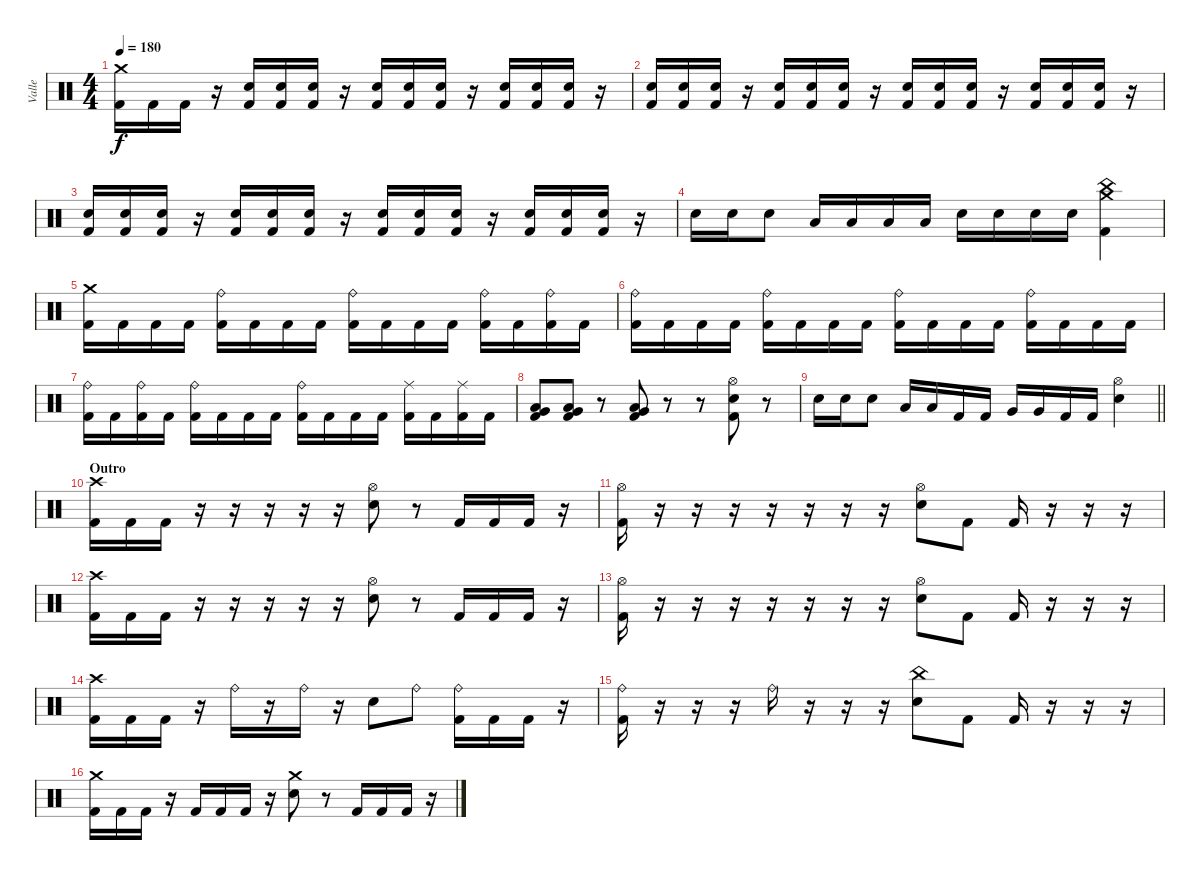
\track ("Valle" "Valle") {instrument percussion}
\staff {score}
\articulation defaults
\ts (4 4)
\tempo 180
\clef neutral
\ks c
("Crash medium (hit)" "Kick (hit) 2").16{dy f} "Kick (hit) 2".16 "Kick (hit) 2".16 r.16 ("Snare (hit) 2" "Kick (hit) 2").16 ("Snare (hit) 2" "Kick (hit) 2").16 ("Snare (hit) 2" "Kick (hit) 2").16 r.16 ("Snare (hit) 2" "Kick (hit) 2").16 ("Snare (hit) 2" "Kick (hit) 2").16 ("Snare (hit) 2" "Kick (hit) 2").16 r.16 ("Snare (hit) 2" "Kick (hit) 2").16 ("Snare (hit) 2" "Kick (hit) 2").16 ("Snare (hit) 2" "Kick (hit) 2").16 r.16 |
("Snare (hit) 2" "Kick (hit) 2").16 ("Snare (hit) 2" "Kick (hit) 2").16 ("Snare (hit) 2" "Kick (hit) 2").16 r.16 ("Snare (hit) 2" "Kick (hit) 2").16 ("Snare (hit) 2" "Kick (hit) 2").16 ("Snare (hit) 2" "Kick (hit) 2").16 r.16 ("Snare (hit) 2" "Kick (hit) 2").16 ("Snare (hit) 2" "Kick (hit) 2").16 ("Snare (hit) 2" "Kick (hit) 2").16 r.16 ("Snare (hit) 2" "Kick (hit) 2").16 ("Snare (hit) 2" "Kick (hit) 2").16 ("Snare (hit) 2" "Kick (hit) 2").16 r.16 |
("Snare (hit) 2" "Kick (hit) 2").16 ("Snare (hit) 2" "Kick (hit) 2").16 ("Snare (hit) 2" "Kick (hit) 2").16 r.16 ("Snare (hit) 2" "Kick (hit) 2").16 ("Snare (hit) 2" "Kick (hit) 2").16 ("Snare (hit) 2" "Kick (hit) 2").16 r.16 ("Snare (hit) 2" "Kick (hit) 2").16 ("Snare (hit) 2" "Kick (hit) 2").16 ("Snare (hit) 2" "Kick (hit) 2").16 r.16 ("Snare (hit) 2" "Kick (hit) 2").16 ("Snare (hit) 2" "Kick (hit) 2").16 ("Snare (hit) 2" "Kick (hit) 2").16 r.16 |
"Snare (hit) 2".16 "Snare (hit) 2".16 "Snare (hit) 2".8 "Low Tom (hit)".16 "Low Tom (hit)".16 "Low Tom (hit)".16 "Low Tom (hit)".16 "Snare (hit) 2".16 "Snare (hit) 2".16 "Snare (hit) 2".16 "Snare (hit) 2".16 ("Crash medium (hit)" "China (hit)" "Kick (hit) 2").4 |
("Crash medium (hit)" "Kick (hit) 2").16 "Kick (hit) 2".16 "Kick (hit) 2".16 "Kick (hit) 2".16 ("Ride (bell)" "Kick (hit) 2").16 "Kick (hit) 2".16 "Kick (hit) 2".16 "Kick (hit) 2".16 ("Ride (bell)" "Kick (hit) 2").16 "Kick (hit) 2".16 "Kick (hit) 2".16 "Kick (hit) 2".16 ("Ride (bell)" "Kick (hit) 2").16 "Kick (hit) 2".16 ("Ride (bell)" "Kick (hit) 2").16 "Kick (hit) 2".16 |
("Ride (bell)" "Kick (hit) 2").16 "Kick (hit) 2".16 "Kick (hit) 2".16 "Kick (hit) 2".16 ("Ride (bell)" "Kick (hit) 2").16 "Kick (hit) 2".16 "Kick (hit) 2".16 "Kick (hit) 2".16 ("Ride (bell)" "Kick (hit) 2").16 "Kick (hit) 2".16 "Kick (hit) 2".16 "Kick (hit) 2".16 ("Ride (bell)" "Kick (hit) 2").16 "Kick (hit) 2".16 "Kick (hit) 2".16 "Kick (hit) 2".16 |
("Ride (bell)" "Kick (hit) 2").16 "Kick (hit) 2".16 ("Ride (bell)" "Kick (hit) 2").16 "Kick (hit) 2".16 ("Ride (bell)" "Kick (hit) 2").16 "Kick (hit) 2".16 "Kick (hit) 2".16 "Kick (hit) 2".16 ("Ride (bell)" "Kick (hit) 2").16 "Kick (hit) 2".16 "Kick (hit) 2".16 "Kick (hit) 2".16 ("Ride (middle)" "Kick (hit) 2").16 "Kick (hit) 2".16 ("Ride (middle)" "Kick (hit) 2").16 "Kick (hit) 2".16 |
("Low Floor Tom (hit)" "Very Low Tom (hit)" "Kick (hit) 2").8 ("Low Floor Tom (hit)" "Very Low Tom (hit)" "Kick (hit) 2").8 r.8 ("Low Floor Tom (hit)" "Very Low Tom (hit)" "Kick (hit) 2").8 r.8 r.8 ("Hi-Hat (open)" "Snare (hit) 2" "Kick (hit) 2").8 r.8 |
\barLineRight lightlight "Snare (hit) 2".16 "Snare (hit) 2".16 "Snare (hit) 2".8 "Low Tom (hit)".16 "Low Tom (hit)".16 "Kick (hit) 2".16 "Kick (hit) 2".16 "Very Low Tom (hit)".16 "Very Low Tom (hit)".16 "Kick (hit) 2".16 "Kick (hit) 2".16
("Hi-Hat (open)" "Snare (hit) 2").4 |
\section ("" "Outro")
("Crash high (hit)" "Kick (hit) 2").16 "Kick (hit) 2".16 "Kick (hit) 2".16 r.16 r.16 r.16 r.16 r.16 ("Hi-Hat (open)" "Snare (hit) 2").8 r.8 "Kick (hit) 2".16 "Kick (hit) 2".16 "Kick (hit) 2".16 r.16 |
("Hi-Hat (open)" "Kick (hit) 2").16 r.16 r.16 r.16 r.16 r.16 r.16 r.16 ("Hi-Hat (open)" "Snare (hit) 2").8 "Kick (hit) 2".8 "Kick (hit) 2".16 r.16 r.16 r.16 |
("Crash high (hit)" "Kick (hit) 2").16 "Kick (hit) 2".16 "Kick (hit) 2".16 r.16 r.16 r.16 r.16 r.16 ("Hi-Hat (open)" "Snare (hit) 2").8 r.8 "Kick (hit) 2".16 "Kick (hit) 2".16 "Kick (hit) 2".16 r.16 |
("Hi-Hat (open)" "Kick (hit) 2").16 r.16 r.16 r.16 r.16 r.16 r.16 r.16 ("Hi-Hat (open)" "Snare (hit) 2").8 "Kick (hit) 2".8 "Kick (hit) 2".16 r.16 r.16 r.16 |
("Crash high (hit)" "Kick (hit) 2").16 "Kick (hit) 2".16 "Kick (hit) 2".16 r.16 "Ride (bell)".16 r.16 "Ride (bell)".16 r.16 "Snare (hit) 2".8 "Ride (bell)".8 ("Ride (bell)" "Kick (hit) 2").16 "Kick (hit) 2".16 "Kick (hit) 2".16 r.16 |
("Ride (bell)" "Kick (hit) 2").16 r.16 r.16 r.16 "Ride (bell)".16 r.16 r.16 r.16 ("China (hit)" "Snare (hit) 2").8 "Kick (hit) 2".8 "Kick (hit) 2".16 r.16 r.16 r.16 |
("Crash medium (hit)" "Kick (hit) 2").16 "Kick (hit) 2".16 "Kick (hit) 2".16 r.16 "Kick (hit) 2".16 "Kick (hit) 2".16 "Kick (hit) 2".16 r.16 ("Crash medium (hit)" "Snare (hit) 2").8 r.8 "Kick (hit) 2".16 "Kick (hit) 2".16 "Kick (hit) 2".16 r.16
